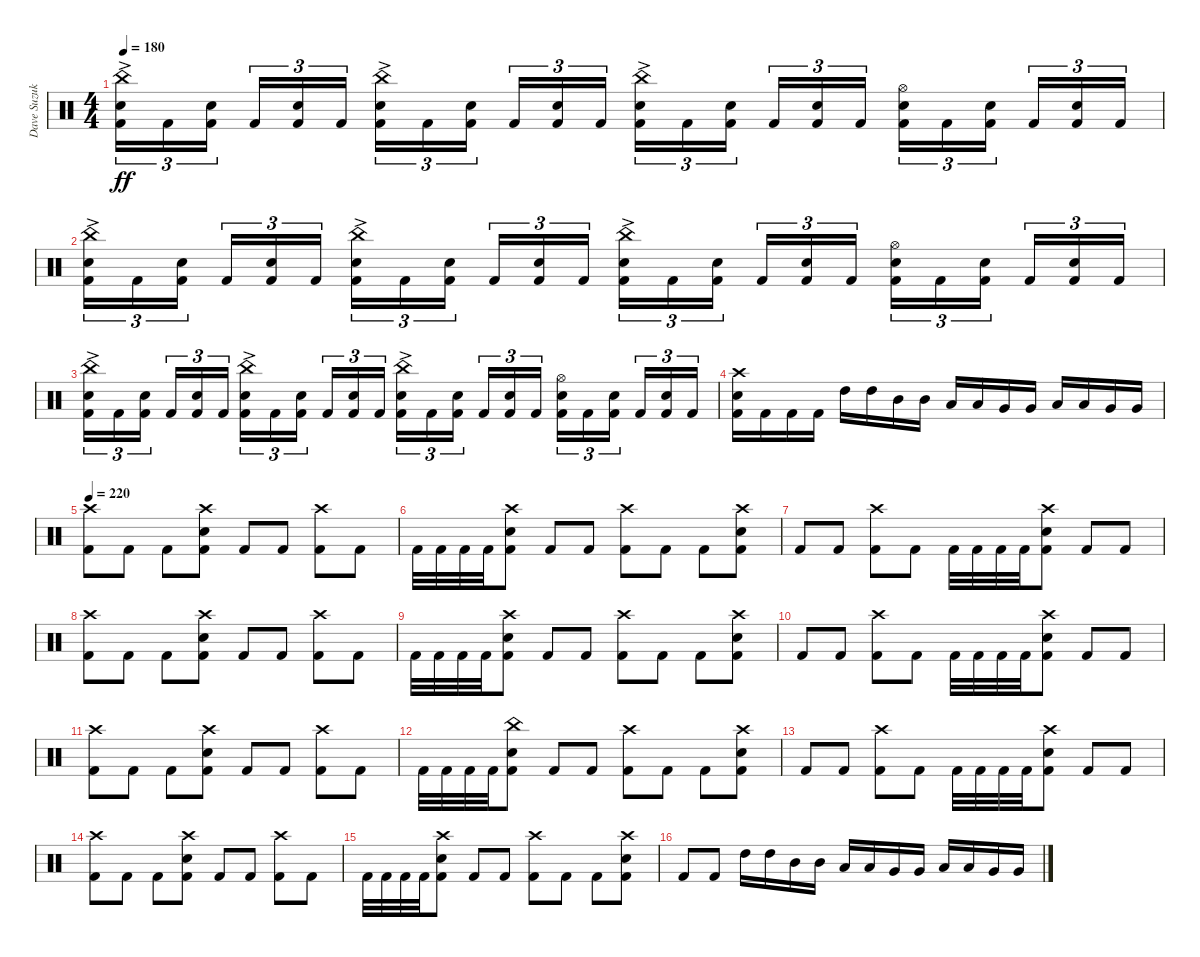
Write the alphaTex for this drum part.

\track ("Dave Suzuki - Drums" "Dave Suzuk") {instrument percussion}
\staff {score}
\articulation defaults
\ts (4 4)
\tempo 180
\clef neutral
\ks c
("China (hit)" "Electric Snare (hit)"{ac} "Kick (hit) 2").16{tu (3 2) dy ff} "Kick (hit) 2".16{tu (3 2)} ("Electric Snare (hit)" "Kick (hit) 2").16{tu (3 2) beam splitsecondary} "Kick (hit) 2".16{tu (3 2)} ("Electric Snare (hit)" "Kick (hit) 2").16{tu (3 2)} "Kick (hit) 2".16{tu (3 2)} ("China (hit)" "Electric Snare (hit)"{ac} "Kick (hit) 2").16{tu (3 2)} "Kick (hit) 2".16{tu (3 2)} ("Electric Snare (hit)" "Kick (hit) 2").16{tu (3 2) beam splitsecondary} "Kick (hit) 2".16{tu (3 2)} ("Electric Snare (hit)" "Kick (hit) 2").16{tu (3 2)} "Kick (hit) 2".16{tu (3 2)} ("China (hit)" "Electric Snare (hit)"{ac} "Kick (hit) 2").16{tu (3 2)} "Kick (hit) 2".16{tu (3 2)} ("Electric Snare (hit)" "Kick (hit) 2").16{tu (3 2) beam splitsecondary} "Kick (hit) 2".16{tu (3 2)} ("Electric Snare (hit)" "Kick (hit) 2").16{tu (3 2)} "Kick (hit) 2".16{tu (3 2)} ("Hi-Hat (open)" "Electric Snare (hit)" "Kick (hit) 2").16{tu (3 2)} "Kick (hit) 2".16{tu (3 2)} ("Electric Snare (hit)" "Kick (hit) 2").16{tu (3 2) beam splitsecondary} "Kick (hit) 2".16{tu (3 2)} ("Electric Snare (hit)" "Kick (hit) 2").16{tu (3 2)} "Kick (hit) 2".16{tu (3 2)} |
("China (hit)" "Electric Snare (hit)"{ac} "Kick (hit) 2").16{tu (3 2)} "Kick (hit) 2".16{tu (3 2)} ("Electric Snare (hit)" "Kick (hit) 2").16{tu (3 2) beam splitsecondary} "Kick (hit) 2".16{tu (3 2)} ("Electric Snare (hit)" "Kick (hit) 2").16{tu (3 2)} "Kick (hit) 2".16{tu (3 2)} ("China (hit)" "Electric Snare (hit)"{ac} "Kick (hit) 2").16{tu (3 2)} "Kick (hit) 2".16{tu (3 2)} ("Electric Snare (hit)" "Kick (hit) 2").16{tu (3 2) beam splitsecondary} "Kick (hit) 2".16{tu (3 2)} ("Electric Snare (hit)" "Kick (hit) 2").16{tu (3 2)} "Kick (hit) 2".16{tu (3 2)} ("China (hit)" "Electric Snare (hit)"{ac} "Kick (hit) 2").16{tu (3 2)} "Kick (hit) 2".16{tu (3 2)} ("Electric Snare (hit)" "Kick (hit) 2").16{tu (3 2) beam splitsecondary} "Kick (hit) 2".16{tu (3 2)} ("Electric Snare (hit)" "Kick (hit) 2").16{tu (3 2)} "Kick (hit) 2".16{tu (3 2)} ("Hi-Hat (open)" "Electric Snare (hit)" "Kick (hit) 2").16{tu (3 2)} "Kick (hit) 2".16{tu (3 2)} ("Electric Snare (hit)" "Kick (hit) 2").16{tu (3 2) beam splitsecondary} "Kick (hit) 2".16{tu (3 2)} ("Electric Snare (hit)" "Kick (hit) 2").16{tu (3 2)} "Kick (hit) 2".16{tu (3 2)} |
("China (hit)" "Electric Snare (hit)"{ac} "Kick (hit) 2").16{tu (3 2)} "Kick (hit) 2".16{tu (3 2)} ("Electric Snare (hit)" "Kick (hit) 2").16{tu (3 2) beam splitsecondary} "Kick (hit) 2".16{tu (3 2)} ("Electric Snare (hit)" "Kick (hit) 2").16{tu (3 2)} "Kick (hit) 2".16{tu (3 2)} ("China (hit)" "Electric Snare (hit)"{ac} "Kick (hit) 2").16{tu (3 2)} "Kick (hit) 2".16{tu (3 2)} ("Electric Snare (hit)" "Kick (hit) 2").16{tu (3 2) beam splitsecondary} "Kick (hit) 2".16{tu (3 2)} ("Electric Snare (hit)" "Kick (hit) 2").16{tu (3 2)} "Kick (hit) 2".16{tu (3 2)} ("China (hit)" "Electric Snare (hit)"{ac} "Kick (hit) 2").16{tu (3 2)} "Kick (hit) 2".16{tu (3 2)} ("Electric Snare (hit)" "Kick (hit) 2").16{tu (3 2) beam splitsecondary} "Kick (hit) 2".16{tu (3 2)} ("Electric Snare (hit)" "Kick (hit) 2").16{tu (3 2)} "Kick (hit) 2".16{tu (3 2)} ("Hi-Hat (open)" "Electric Snare (hit)" "Kick (hit) 2").16{tu (3 2)} "Kick (hit) 2".16{tu (3 2)} ("Electric Snare (hit)" "Kick (hit) 2").16{tu (3 2) beam splitsecondary} "Kick (hit) 2".16{tu (3 2)} ("Electric Snare (hit)" "Kick (hit) 2").16{tu (3 2)} "Kick (hit) 2".16{tu (3 2)} |
("Crash high (hit)" "Electric Snare (hit)" "Kick (hit) 2").16 "Kick (hit) 2".16 "Kick (hit) 2".16 "Kick (hit) 2".16 "High Tom (hit)".16 "High Tom (hit)".16 "Mid Tom (hit)".16 "Mid Tom (hit)".16 "Low Tom (hit)".16 "Low Tom (hit)".16 "Very Low Tom (hit)".16 "Very Low Tom (hit)".16 "Low Tom (hit)".16 "Low Tom (hit)".16 "Very Low Tom (hit)".16 "Very Low Tom (hit)".16 |
\tempo 220
("Crash high (hit)" "Kick (hit) 2").8 "Kick (hit) 2".8 "Kick (hit) 2".8 ("Crash high (hit)" "Electric Snare (hit)" "Kick (hit) 2").8 "Kick (hit) 2".8 "Kick (hit) 2".8 ("Crash high (hit)" "Kick (hit) 2").8 "Kick (hit) 2".8 |
"Kick (hit) 2".32 "Kick (hit) 2".32 "Kick (hit) 2".32 "Kick (hit) 2".32 ("Crash high (hit)" "Electric Snare (hit)" "Kick (hit) 2").8 "Kick (hit) 2".8 "Kick (hit) 2".8 ("Crash high (hit)" "Kick (hit) 2").8 "Kick (hit) 2".8 "Kick (hit) 2".8 ("Crash high (hit)" "Electric Snare (hit)" "Kick (hit) 2").8 |
"Kick (hit) 2".8 "Kick (hit) 2".8 ("Crash high (hit)" "Kick (hit) 2").8 "Kick (hit) 2".8 "Kick (hit) 2".32 "Kick (hit) 2".32 "Kick (hit) 2".32 "Kick (hit) 2".32 ("Crash high (hit)" "Electric Snare (hit)" "Kick (hit) 2").8 "Kick (hit) 2".8 "Kick (hit) 2".8 |
("Crash high (hit)" "Kick (hit) 2").8 "Kick (hit) 2".8 "Kick (hit) 2".8 ("Crash high (hit)" "Electric Snare (hit)" "Kick (hit) 2").8 "Kick (hit) 2".8 "Kick (hit) 2".8 ("Crash high (hit)" "Kick (hit) 2").8 "Kick (hit) 2".8 |
"Kick (hit) 2".32 "Kick (hit) 2".32 "Kick (hit) 2".32 "Kick (hit) 2".32 ("Crash high (hit)" "Electric Snare (hit)" "Kick (hit) 2").8 "Kick (hit) 2".8 "Kick (hit) 2".8 ("Crash high (hit)" "Kick (hit) 2").8 "Kick (hit) 2".8 "Kick (hit) 2".8 ("Crash high (hit)" "Electric Snare (hit)" "Kick (hit) 2").8 |
"Kick (hit) 2".8 "Kick (hit) 2".8 ("Crash high (hit)" "Kick (hit) 2").8 "Kick (hit) 2".8 "Kick (hit) 2".32 "Kick (hit) 2".32 "Kick (hit) 2".32 "Kick (hit) 2".32 ("Crash high (hit)" "Electric Snare (hit)" "Kick (hit) 2").8 "Kick (hit) 2".8 "Kick (hit) 2".8 |
("Crash high (hit)" "Kick (hit) 2").8 "Kick (hit) 2".8 "Kick (hit) 2".8 ("Crash high (hit)" "Electric Snare (hit)" "Kick (hit) 2").8 "Kick (hit) 2".8 "Kick (hit) 2".8 ("Crash high (hit)" "Kick (hit) 2").8 "Kick (hit) 2".8 |
"Kick (hit) 2".32 "Kick (hit) 2".32 "Kick (hit) 2".32 "Kick (hit) 2".32 ("China (hit)" "Electric Snare (hit)" "Kick (hit) 2").8 "Kick (hit) 2".8 "Kick (hit) 2".8 ("Crash high (hit)" "Kick (hit) 2").8 "Kick (hit) 2".8 "Kick (hit) 2".8 ("Crash high (hit)" "Electric Snare (hit)" "Kick (hit) 2").8 |
"Kick (hit) 2".8 "Kick (hit) 2".8 ("Crash high (hit)" "Kick (hit) 2").8 "Kick (hit) 2".8 "Kick (hit) 2".32 "Kick (hit) 2".32 "Kick (hit) 2".32 "Kick (hit) 2".32 ("Crash high (hit)" "Electric Snare (hit)" "Kick (hit) 2").8 "Kick (hit) 2".8 "Kick (hit) 2".8 |
("Crash high (hit)" "Kick (hit) 2").8 "Kick (hit) 2".8 "Kick (hit) 2".8 ("Crash high (hit)" "Electric Snare (hit)" "Kick (hit) 2").8 "Kick (hit) 2".8 "Kick (hit) 2".8 ("Crash high (hit)" "Kick (hit) 2").8 "Kick (hit) 2".8 |
"Kick (hit) 2".32 "Kick (hit) 2".32 "Kick (hit) 2".32 "Kick (hit) 2".32 ("Crash high (hit)" "Electric Snare (hit)" "Kick (hit) 2").8 "Kick (hit) 2".8 "Kick (hit) 2".8 ("Crash high (hit)" "Kick (hit) 2").8 "Kick (hit) 2".8 "Kick (hit) 2".8 ("Crash high (hit)" "Electric Snare (hit)" "Kick (hit) 2").8 |
"Kick (hit) 2".8 "Kick (hit) 2".8 "High Tom (hit)".16 "High Tom (hit)".16 "Mid Tom (hit)".16 "Mid Tom (hit)".16 "Low Tom (hit)".16 "Low Tom (hit)".16 "Very Low Tom (hit)".16 "Very Low Tom (hit)".16 "Low Tom (hit)".16 "Low Tom (hit)".16 "Very Low Tom (hit)".16 "Very Low Tom (hit)".16
